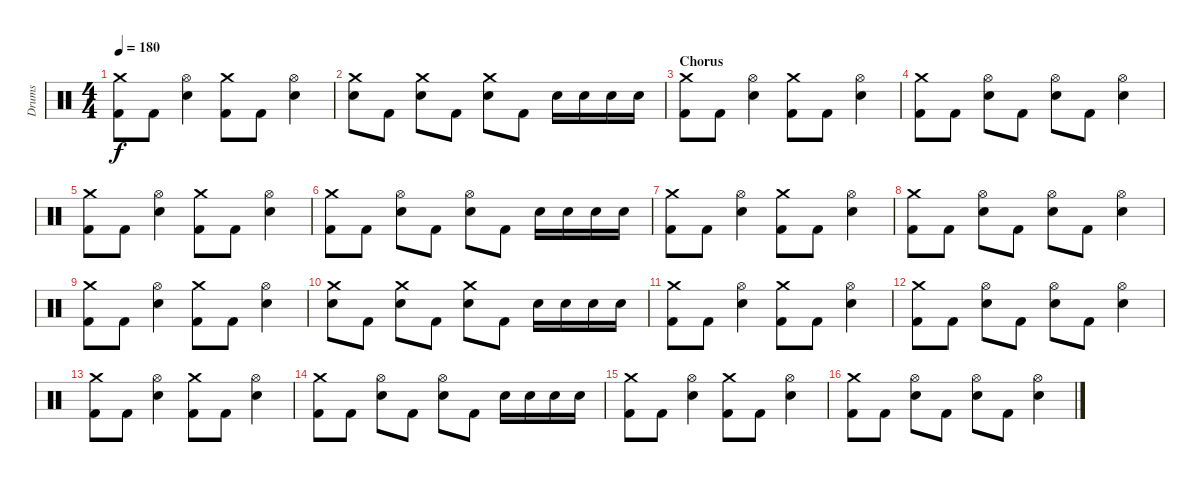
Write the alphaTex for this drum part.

\track ("Drums" "Drums") {instrument percussion}
\staff {score}
\articulation defaults
\ts (4 4)
\tempo 180
\clef neutral
\ks c
("Kick (hit) 2" "Crash medium (hit)").8{dy f} "Kick (hit) 2".8 ("Electric Snare (hit)" "Hi-Hat (open)").4 ("Kick (hit) 2" "Crash medium (hit)").8 "Kick (hit) 2".8 ("Electric Snare (hit)" "Hi-Hat (open)").4 |
("Electric Snare (hit)" "Crash medium (hit)").8 "Kick (hit) 2".8 ("Electric Snare (hit)" "Crash medium (hit)").8 "Kick (hit) 2".8 ("Electric Snare (hit)" "Crash medium (hit)").8 "Kick (hit) 2".8 "Electric Snare (hit)".16 "Electric Snare (hit)".16 "Electric Snare (hit)".16 "Electric Snare (hit)".16 |
\section ("" "Chorus")
("Kick (hit) 2" "Crash medium (hit)").8 "Kick (hit) 2".8 ("Electric Snare (hit)" "Hi-Hat (open)").4 ("Kick (hit) 2" "Crash medium (hit)").8 "Kick (hit) 2".8 ("Electric Snare (hit)" "Hi-Hat (open)").4 |
("Kick (hit) 2" "Crash medium (hit)").8 "Kick (hit) 2".8 ("Electric Snare (hit)" "Hi-Hat (open)").8 "Kick (hit) 2".8 ("Electric Snare (hit)" "Hi-Hat (open)").8 "Kick (hit) 2".8 ("Electric Snare (hit)" "Hi-Hat (open)").4 |
("Kick (hit) 2" "Crash medium (hit)").8 "Kick (hit) 2".8 ("Electric Snare (hit)" "Hi-Hat (open)").4 ("Kick (hit) 2" "Crash medium (hit)").8 "Kick (hit) 2".8 ("Electric Snare (hit)" "Hi-Hat (open)").4 |
("Kick (hit) 2" "Crash medium (hit)").8 "Kick (hit) 2".8 ("Electric Snare (hit)" "Hi-Hat (open)").8 "Kick (hit) 2".8 ("Electric Snare (hit)" "Hi-Hat (open)").8 "Kick (hit) 2".8 "Electric Snare (hit)".16 "Electric Snare (hit)".16 "Electric Snare (hit)".16 "Electric Snare (hit)".16 |
("Kick (hit) 2" "Crash medium (hit)").8 "Kick (hit) 2".8 ("Electric Snare (hit)" "Hi-Hat (open)").4 ("Kick (hit) 2" "Crash medium (hit)").8 "Kick (hit) 2".8 ("Electric Snare (hit)" "Hi-Hat (open)").4 |
("Kick (hit) 2" "Crash medium (hit)").8 "Kick (hit) 2".8 ("Electric Snare (hit)" "Hi-Hat (open)").8 "Kick (hit) 2".8 ("Electric Snare (hit)" "Hi-Hat (open)").8 "Kick (hit) 2".8 ("Electric Snare (hit)" "Hi-Hat (open)").4 |
("Kick (hit) 2" "Crash medium (hit)").8 "Kick (hit) 2".8 ("Electric Snare (hit)" "Hi-Hat (open)").4 ("Kick (hit) 2" "Crash medium (hit)").8 "Kick (hit) 2".8 ("Electric Snare (hit)" "Hi-Hat (open)").4 |
("Electric Snare (hit)" "Crash medium (hit)").8 "Kick (hit) 2".8 ("Electric Snare (hit)" "Crash medium (hit)").8 "Kick (hit) 2".8 ("Electric Snare (hit)" "Crash medium (hit)").8 "Kick (hit) 2".8 "Electric Snare (hit)".16 "Electric Snare (hit)".16 "Electric Snare (hit)".16 "Electric Snare (hit)".16 |
("Kick (hit) 2" "Crash medium (hit)").8 "Kick (hit) 2".8 ("Electric Snare (hit)" "Hi-Hat (open)").4 ("Kick (hit) 2" "Crash medium (hit)").8 "Kick (hit) 2".8 ("Electric Snare (hit)" "Hi-Hat (open)").4 |
("Kick (hit) 2" "Crash medium (hit)").8 "Kick (hit) 2".8 ("Electric Snare (hit)" "Hi-Hat (open)").8 "Kick (hit) 2".8 ("Electric Snare (hit)" "Hi-Hat (open)").8 "Kick (hit) 2".8 ("Electric Snare (hit)" "Hi-Hat (open)").4 |
("Kick (hit) 2" "Crash medium (hit)").8 "Kick (hit) 2".8 ("Electric Snare (hit)" "Hi-Hat (open)").4 ("Kick (hit) 2" "Crash medium (hit)").8 "Kick (hit) 2".8 ("Electric Snare (hit)" "Hi-Hat (open)").4 |
("Kick (hit) 2" "Crash medium (hit)").8 "Kick (hit) 2".8 ("Electric Snare (hit)" "Hi-Hat (open)").8 "Kick (hit) 2".8 ("Electric Snare (hit)" "Hi-Hat (open)").8 "Kick (hit) 2".8 "Electric Snare (hit)".16 "Electric Snare (hit)".16 "Electric Snare (hit)".16 "Electric Snare (hit)".16 |
("Kick (hit) 2" "Crash medium (hit)").8 "Kick (hit) 2".8 ("Electric Snare (hit)" "Hi-Hat (open)").4 ("Kick (hit) 2" "Crash medium (hit)").8 "Kick (hit) 2".8 ("Electric Snare (hit)" "Hi-Hat (open)").4 |
("Kick (hit) 2" "Crash medium (hit)").8 "Kick (hit) 2".8 ("Electric Snare (hit)" "Hi-Hat (open)").8 "Kick (hit) 2".8 ("Electric Snare (hit)" "Hi-Hat (open)").8 "Kick (hit) 2".8 ("Electric Snare (hit)" "Hi-Hat (open)").4
